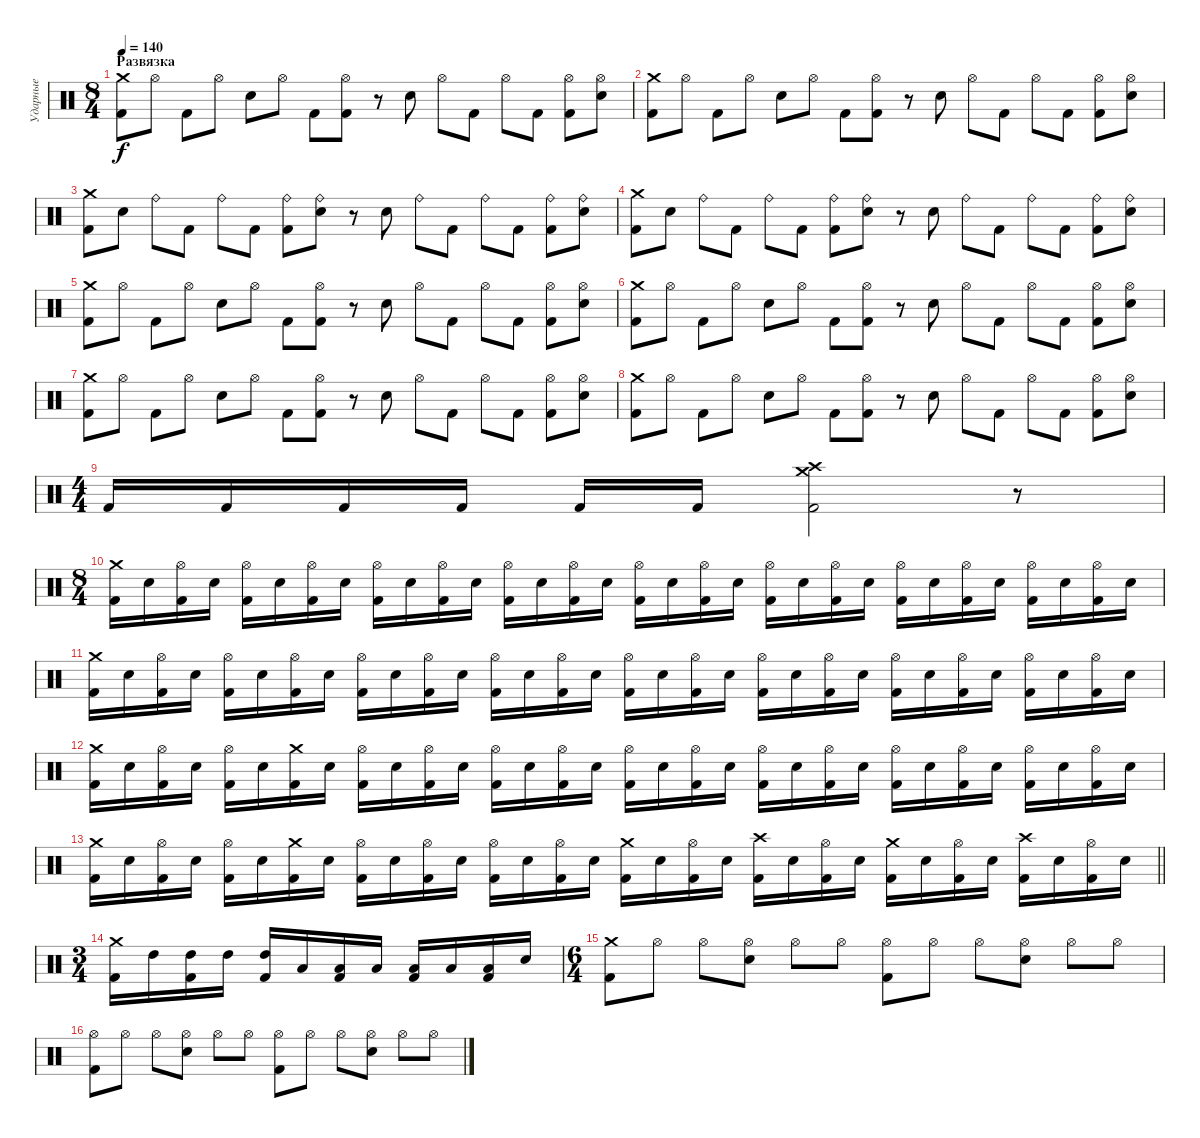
\track ("Ударные" "Ударные") {instrument percussion}
\staff {score}
\articulation defaults
\ts (8 4)
\section ("" "Развязка")
\tempo 140
\clef neutral
\ks c
("Crash medium (hit)" "Kick (hit) 2").8{dy f} "Hi-Hat (open)".8 "Kick (hit) 2".8 "Hi-Hat (open)".8 "Electric Snare (hit)".8 "Hi-Hat (open)".8 "Kick (hit) 2".8 ("Hi-Hat (open)" "Kick (hit) 2").8 r.8 "Electric Snare (hit)".8 "Hi-Hat (open)".8 "Kick (hit) 2".8 "Hi-Hat (open)".8 "Kick (hit) 2".8 ("Hi-Hat (open)" "Kick (hit) 2").8 ("Hi-Hat (open)" "Electric Snare (hit)").8 |
("Crash medium (hit)" "Kick (hit) 2").8 "Hi-Hat (open)".8 "Kick (hit) 2".8 "Hi-Hat (open)".8 "Electric Snare (hit)".8 "Hi-Hat (open)".8 "Kick (hit) 2".8 ("Hi-Hat (open)" "Kick (hit) 2").8 r.8 "Electric Snare (hit)".8 "Hi-Hat (open)".8 "Kick (hit) 2".8 "Hi-Hat (open)".8 "Kick (hit) 2".8 ("Hi-Hat (open)" "Kick (hit) 2").8 ("Hi-Hat (open)" "Electric Snare (hit)").8 |
("Crash medium (hit)" "Kick (hit) 2").8 "Electric Snare (hit)".8 "Ride (bell)".8 "Kick (hit) 2".8 "Ride (bell)".8 "Kick (hit) 2".8 ("Ride (bell)" "Kick (hit) 2").8 ("Ride (bell)" "Electric Snare (hit)").8 r.8 "Electric Snare (hit)".8 "Ride (bell)".8 "Kick (hit) 2".8 "Ride (bell)".8 "Kick (hit) 2".8 ("Ride (bell)" "Kick (hit) 2").8 ("Ride (bell)" "Electric Snare (hit)").8 |
("Crash medium (hit)" "Kick (hit) 2").8 "Electric Snare (hit)".8 "Ride (bell)".8 "Kick (hit) 2".8 "Ride (bell)".8 "Kick (hit) 2".8 ("Ride (bell)" "Kick (hit) 2").8 ("Ride (bell)" "Electric Snare (hit)").8 r.8 "Electric Snare (hit)".8 "Ride (bell)".8 "Kick (hit) 2".8 "Ride (bell)".8 "Kick (hit) 2".8 ("Ride (bell)" "Kick (hit) 2").8 ("Ride (bell)" "Electric Snare (hit)").8 |
("Crash medium (hit)" "Kick (hit) 2").8 "Hi-Hat (open)".8 "Kick (hit) 2".8 "Hi-Hat (open)".8 "Electric Snare (hit)".8 "Hi-Hat (open)".8 "Kick (hit) 2".8 ("Hi-Hat (open)" "Kick (hit) 2").8 r.8 "Electric Snare (hit)".8 "Hi-Hat (open)".8 "Kick (hit) 2".8 "Hi-Hat (open)".8 "Kick (hit) 2".8 ("Hi-Hat (open)" "Kick (hit) 2").8 ("Hi-Hat (open)" "Electric Snare (hit)").8 |
("Crash medium (hit)" "Kick (hit) 2").8 "Hi-Hat (open)".8 "Kick (hit) 2".8 "Hi-Hat (open)".8 "Electric Snare (hit)".8 "Hi-Hat (open)".8 "Kick (hit) 2".8 ("Hi-Hat (open)" "Kick (hit) 2").8 r.8 "Electric Snare (hit)".8 "Hi-Hat (open)".8 "Kick (hit) 2".8 "Hi-Hat (open)".8 "Kick (hit) 2".8 ("Hi-Hat (open)" "Kick (hit) 2").8 ("Hi-Hat (open)" "Electric Snare (hit)").8 |
("Crash medium (hit)" "Kick (hit) 2").8 "Hi-Hat (open)".8 "Kick (hit) 2".8 "Hi-Hat (open)".8 "Electric Snare (hit)".8 "Hi-Hat (open)".8 "Kick (hit) 2".8 ("Hi-Hat (open)" "Kick (hit) 2").8 r.8 "Electric Snare (hit)".8 "Hi-Hat (open)".8 "Kick (hit) 2".8 "Hi-Hat (open)".8 "Kick (hit) 2".8 ("Hi-Hat (open)" "Kick (hit) 2").8 ("Hi-Hat (open)" "Electric Snare (hit)").8 |
("Crash medium (hit)" "Kick (hit) 2").8 "Hi-Hat (open)".8 "Kick (hit) 2".8 "Hi-Hat (open)".8 "Electric Snare (hit)".8 "Hi-Hat (open)".8 "Kick (hit) 2".8 ("Hi-Hat (open)" "Kick (hit) 2").8 r.8 "Electric Snare (hit)".8 "Hi-Hat (open)".8 "Kick (hit) 2".8 "Hi-Hat (open)".8 "Kick (hit) 2".8 ("Hi-Hat (open)" "Kick (hit) 2").8 ("Hi-Hat (open)" "Electric Snare (hit)").8 |
\ts (4 4)
"Kick (hit) 2".16 "Kick (hit) 2".16 "Kick (hit) 2".16 "Kick (hit) 2".16 "Kick (hit) 2".16 "Kick (hit) 2".16 ("Crash medium (hit)" "Crash high (hit)" "Kick (hit) 2").2 r.8 |
\ts (8 4)
("Crash medium (hit)" "Kick (hit) 2").16 "Electric Snare (hit)".16 ("Hi-Hat (open)" "Kick (hit) 2").16 "Electric Snare (hit)".16 ("Hi-Hat (open)" "Kick (hit) 2").16 "Electric Snare (hit)".16 ("Hi-Hat (open)" "Kick (hit) 2").16 "Electric Snare (hit)".16 ("Hi-Hat (open)" "Kick (hit) 2").16 "Electric Snare (hit)".16 ("Hi-Hat (open)" "Kick (hit) 2").16 "Electric Snare (hit)".16 ("Hi-Hat (open)" "Kick (hit) 2").16 "Electric Snare (hit)".16 ("Hi-Hat (open)" "Kick (hit) 2").16 "Electric Snare (hit)".16 ("Hi-Hat (open)" "Kick (hit) 2").16 "Electric Snare (hit)".16 ("Hi-Hat (open)" "Kick (hit) 2").16 "Electric Snare (hit)".16 ("Hi-Hat (open)" "Kick (hit) 2").16 "Electric Snare (hit)".16 ("Hi-Hat (open)" "Kick (hit) 2").16 "Electric Snare (hit)".16 ("Hi-Hat (open)" "Kick (hit) 2").16 "Electric Snare (hit)".16 ("Hi-Hat (open)" "Kick (hit) 2").16 "Electric Snare (hit)".16 ("Hi-Hat (open)" "Kick (hit) 2").16 "Electric Snare (hit)".16 ("Hi-Hat (open)" "Kick (hit) 2").16 "Electric Snare (hit)".16 |
("Crash medium (hit)" "Kick (hit) 2").16 "Electric Snare (hit)".16 ("Hi-Hat (open)" "Kick (hit) 2").16 "Electric Snare (hit)".16 ("Hi-Hat (open)" "Kick (hit) 2").16 "Electric Snare (hit)".16 ("Hi-Hat (open)" "Kick (hit) 2").16 "Electric Snare (hit)".16 ("Hi-Hat (open)" "Kick (hit) 2").16 "Electric Snare (hit)".16 ("Hi-Hat (open)" "Kick (hit) 2").16 "Electric Snare (hit)".16 ("Hi-Hat (open)" "Kick (hit) 2").16 "Electric Snare (hit)".16 ("Hi-Hat (open)" "Kick (hit) 2").16 "Electric Snare (hit)".16 ("Hi-Hat (open)" "Kick (hit) 2").16 "Electric Snare (hit)".16 ("Hi-Hat (open)" "Kick (hit) 2").16 "Electric Snare (hit)".16 ("Hi-Hat (open)" "Kick (hit) 2").16 "Electric Snare (hit)".16 ("Hi-Hat (open)" "Kick (hit) 2").16 "Electric Snare (hit)".16 ("Hi-Hat (open)" "Kick (hit) 2").16 "Electric Snare (hit)".16 ("Hi-Hat (open)" "Kick (hit) 2").16 "Electric Snare (hit)".16 ("Hi-Hat (open)" "Kick (hit) 2").16 "Electric Snare (hit)".16 ("Hi-Hat (open)" "Kick (hit) 2").16 "Electric Snare (hit)".16 |
("Crash medium (hit)" "Kick (hit) 2").16 "Electric Snare (hit)".16 ("Hi-Hat (open)" "Kick (hit) 2").16 "Electric Snare (hit)".16 ("Hi-Hat (open)" "Kick (hit) 2").16 "Electric Snare (hit)".16 ("Crash medium (hit)" "Kick (hit) 2").16 "Electric Snare (hit)".16 ("Hi-Hat (open)" "Kick (hit) 2").16 "Electric Snare (hit)".16 ("Hi-Hat (open)" "Kick (hit) 2").16 "Electric Snare (hit)".16 ("Hi-Hat (open)" "Kick (hit) 2").16 "Electric Snare (hit)".16 ("Hi-Hat (open)" "Kick (hit) 2").16 "Electric Snare (hit)".16 ("Hi-Hat (open)" "Kick (hit) 2").16 "Electric Snare (hit)".16 ("Hi-Hat (open)" "Kick (hit) 2").16 "Electric Snare (hit)".16 ("Hi-Hat (open)" "Kick (hit) 2").16 "Electric Snare (hit)".16 ("Hi-Hat (open)" "Kick (hit) 2").16 "Electric Snare (hit)".16 ("Hi-Hat (open)" "Kick (hit) 2").16 "Electric Snare (hit)".16 ("Hi-Hat (open)" "Kick (hit) 2").16 "Electric Snare (hit)".16 ("Hi-Hat (open)" "Kick (hit) 2").16 "Electric Snare (hit)".16 ("Hi-Hat (open)" "Kick (hit) 2").16 "Electric Snare (hit)".16 |
\barLineRight lightlight
("Crash medium (hit)" "Kick (hit) 2").16 "Electric Snare (hit)".16 ("Hi-Hat (open)" "Kick (hit) 2").16 "Electric Snare (hit)".16 ("Hi-Hat (open)" "Kick (hit) 2").16 "Electric Snare (hit)".16 ("Crash medium (hit)" "Kick (hit) 2").16 "Electric Snare (hit)".16 ("Hi-Hat (open)" "Kick (hit) 2").16 "Electric Snare (hit)".16 ("Hi-Hat (open)" "Kick (hit) 2").16 "Electric Snare (hit)".16 ("Hi-Hat (open)" "Kick (hit) 2").16 "Electric Snare (hit)".16 ("Hi-Hat (open)" "Kick (hit) 2").16 "Electric Snare (hit)".16 ("Crash medium (hit)" "Kick (hit) 2").16 "Electric Snare (hit)".16 ("Hi-Hat (open)" "Kick (hit) 2").16 "Electric Snare (hit)".16 ("Crash high (hit)" "Kick (hit) 2").16 "Electric Snare (hit)".16 ("Hi-Hat (open)" "Kick (hit) 2").16 "Electric Snare (hit)".16 ("Crash medium (hit)" "Kick (hit) 2").16 "Electric Snare (hit)".16 ("Hi-Hat (open)" "Kick (hit) 2").16 "Electric Snare (hit)".16 ("Crash high (hit)" "Kick (hit) 2").16 "Electric Snare (hit)".16 ("Hi-Hat (open)" "Kick (hit) 2").16 "Electric Snare (hit)".16 |
\ts (3 4)
("Crash medium (hit)" "Kick (hit) 2").16 "High Tom (hit)".16 ("High Tom (hit)" "Kick (hit) 2").16 "High Tom (hit)".16 ("High Tom (hit)" "Kick (hit) 2").16 "Low Tom (hit)".16 ("Low Tom (hit)" "Kick (hit) 2").16 "Low Tom (hit)".16 ("Low Tom (hit)" "Kick (hit) 2").16 "Low Tom (hit)".16 ("Low Tom (hit)" "Kick (hit) 2").16 "Electric Snare (hit)".16 |
\ts (6 4)
("Crash medium (hit)" "Kick (hit) 2").8 "Hi-Hat (open)".8 "Hi-Hat (open)".8 ("Hi-Hat (open)" "Electric Snare (hit)").8 "Hi-Hat (open)".8 "Hi-Hat (open)".8 ("Hi-Hat (open)" "Kick (hit) 2").8 "Hi-Hat (open)".8 "Hi-Hat (open)".8 ("Hi-Hat (open)" "Electric Snare (hit)").8 "Hi-Hat (open)".8 "Hi-Hat (open)".8 |
("Hi-Hat (open)" "Kick (hit) 2").8 "Hi-Hat (open)".8 "Hi-Hat (open)".8 ("Hi-Hat (open)" "Electric Snare (hit)").8 "Hi-Hat (open)".8 "Hi-Hat (open)".8 ("Hi-Hat (open)" "Kick (hit) 2").8 "Hi-Hat (open)".8 "Hi-Hat (open)".8 ("Hi-Hat (open)" "Electric Snare (hit)").8 "Hi-Hat (open)".8 "Hi-Hat (open)".8
